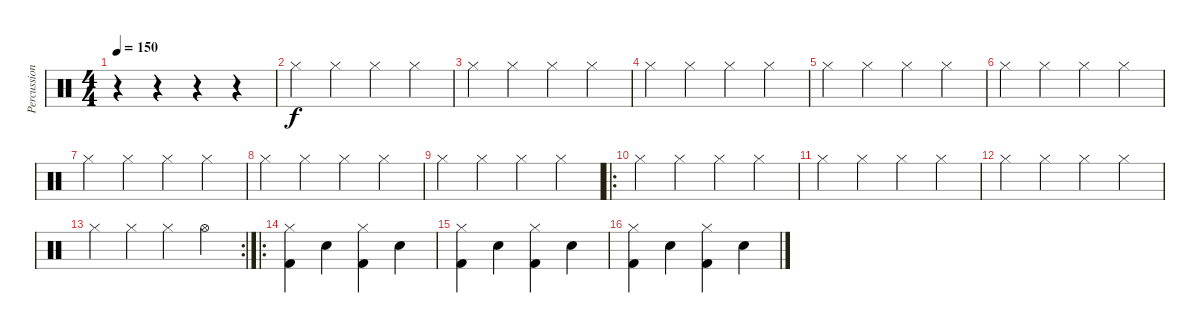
\track ("Percussion" "Percussion") {instrument percussion}
\staff {score}
\articulation defaults
\ts (4 4)
\tempo 150
\clef neutral
\ks c
r.4{dy f} r.4 r.4 r.4 |
"Hi-Hat (closed)".4 "Hi-Hat (closed)".4 "Hi-Hat (closed)".4 "Hi-Hat (closed)".4 |
"Hi-Hat (closed)".4 "Hi-Hat (closed)".4 "Hi-Hat (closed)".4 "Hi-Hat (closed)".4 |
"Hi-Hat (closed)".4 "Hi-Hat (closed)".4 "Hi-Hat (closed)".4 "Hi-Hat (closed)".4 |
"Hi-Hat (closed)".4 "Hi-Hat (closed)".4 "Hi-Hat (closed)".4 "Hi-Hat (closed)".4 |
"Hi-Hat (closed)".4 "Hi-Hat (closed)".4 "Hi-Hat (closed)".4 "Hi-Hat (closed)".4 |
"Hi-Hat (closed)".4 "Hi-Hat (closed)".4 "Hi-Hat (closed)".4 "Hi-Hat (closed)".4 |
"Hi-Hat (closed)".4 "Hi-Hat (closed)".4 "Hi-Hat (closed)".4 "Hi-Hat (closed)".4 |
"Hi-Hat (closed)".4 "Hi-Hat (closed)".4 "Hi-Hat (closed)".4 "Hi-Hat (closed)".4 |
\ro "Hi-Hat (closed)".4 "Hi-Hat (closed)".4 "Hi-Hat (closed)".4 "Hi-Hat (closed)".4
|
"Hi-Hat (closed)".4 "Hi-Hat (closed)".4 "Hi-Hat (closed)".4 "Hi-Hat (closed)".4 |
"Hi-Hat (closed)".4 "Hi-Hat (closed)".4 "Hi-Hat (closed)".4 "Hi-Hat (closed)".4 |
\rc 2 "Hi-Hat (closed)".4 "Hi-Hat (closed)".4 "Hi-Hat (closed)".4 "Hi-Hat (open)".4
|
\ro
("Hi-Hat (closed)" "Kick (hit) 2").4 "Snare (hit) 2".4 ("Hi-Hat (closed)" "Kick (hit) 2").4 "Snare (hit) 2".4 |
("Hi-Hat (closed)" "Kick (hit) 2").4 "Snare (hit) 2".4 ("Hi-Hat (closed)" "Kick (hit) 2").4 "Snare (hit) 2".4 |
("Hi-Hat (closed)" "Kick (hit) 2").4 "Snare (hit) 2".4 ("Hi-Hat (closed)" "Kick (hit) 2").4 "Snare (hit) 2".4
